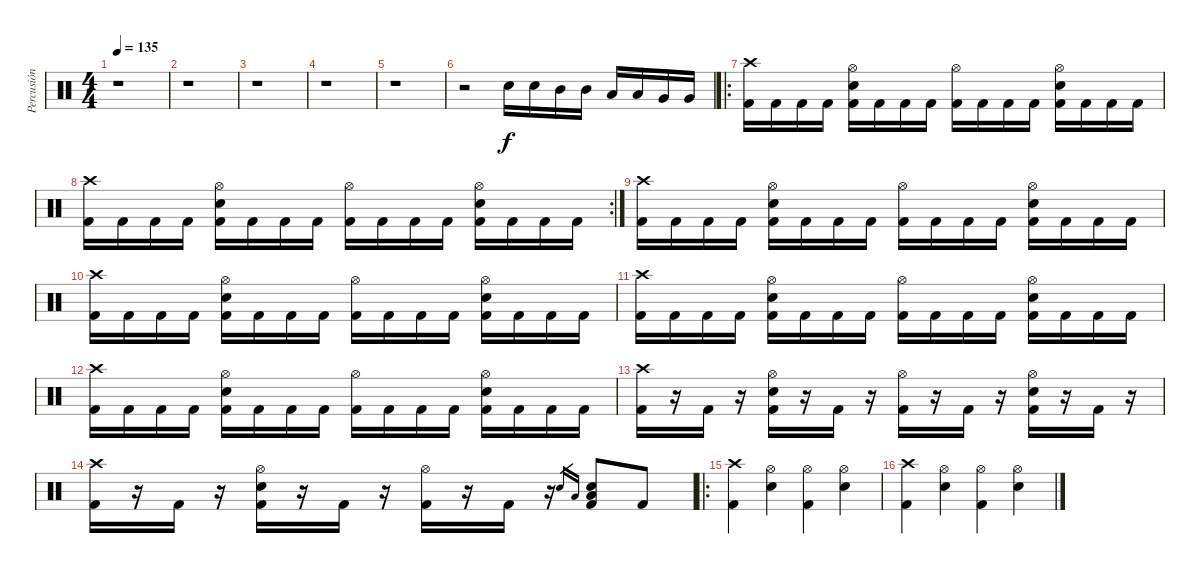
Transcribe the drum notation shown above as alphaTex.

\track ("Percusión" "Percusión") {instrument percussion}
\staff {score}
\articulation defaults
\ts (4 4)
\tempo 135
\clef neutral
\ks c
r.1{dy f} |
r.1 |
r.1 |
r.1 |
r.1 |
r.2 "Snare (hit) 2".16 "Snare (hit) 2".16 "Mid Tom (hit)".16 "Mid Tom (hit)".16 "Low Tom (hit)".16 "Low Tom (hit)".16 "Very Low Tom (hit)".16 "Very Low Tom (hit)".16 |
\ro
("Crash high (hit)" "Kick (hit) 2").16 "Kick (hit) 2".16 "Kick (hit) 2".16 "Kick (hit) 2".16 ("Hi-Hat (open)" "Snare (hit) 2" "Kick (hit) 2").16 "Kick (hit) 2".16 "Kick (hit) 2".16 "Kick (hit) 2".16 ("Hi-Hat (open)" "Kick (hit) 2").16 "Kick (hit) 2".16 "Kick (hit) 2".16 "Kick (hit) 2".16 ("Hi-Hat (open)" "Snare (hit) 2" "Kick (hit) 2").16 "Kick (hit) 2".16 "Kick (hit) 2".16 "Kick (hit) 2".16 |
\rc 2
("Crash high (hit)" "Kick (hit) 2").16 "Kick (hit) 2".16 "Kick (hit) 2".16 "Kick (hit) 2".16 ("Hi-Hat (open)" "Snare (hit) 2" "Kick (hit) 2").16 "Kick (hit) 2".16 "Kick (hit) 2".16 "Kick (hit) 2".16 ("Hi-Hat (open)" "Kick (hit) 2").16 "Kick (hit) 2".16 "Kick (hit) 2".16 "Kick (hit) 2".16 ("Hi-Hat (open)" "Snare (hit) 2" "Kick (hit) 2").16 "Kick (hit) 2".16 "Kick (hit) 2".16 "Kick (hit) 2".16 |
("Crash high (hit)" "Kick (hit) 2").16 "Kick (hit) 2".16 "Kick (hit) 2".16 "Kick (hit) 2".16 ("Hi-Hat (open)" "Snare (hit) 2" "Kick (hit) 2").16 "Kick (hit) 2".16 "Kick (hit) 2".16 "Kick (hit) 2".16 ("Hi-Hat (open)" "Kick (hit) 2").16 "Kick (hit) 2".16 "Kick (hit) 2".16 "Kick (hit) 2".16 ("Hi-Hat (open)" "Snare (hit) 2" "Kick (hit) 2").16 "Kick (hit) 2".16 "Kick (hit) 2".16 "Kick (hit) 2".16 |
("Crash high (hit)" "Kick (hit) 2").16 "Kick (hit) 2".16 "Kick (hit) 2".16 "Kick (hit) 2".16 ("Hi-Hat (open)" "Snare (hit) 2" "Kick (hit) 2").16 "Kick (hit) 2".16 "Kick (hit) 2".16 "Kick (hit) 2".16 ("Hi-Hat (open)" "Kick (hit) 2").16 "Kick (hit) 2".16 "Kick (hit) 2".16 "Kick (hit) 2".16 ("Hi-Hat (open)" "Snare (hit) 2" "Kick (hit) 2").16 "Kick (hit) 2".16 "Kick (hit) 2".16 "Kick (hit) 2".16 |
("Crash high (hit)" "Kick (hit) 2").16 "Kick (hit) 2".16 "Kick (hit) 2".16 "Kick (hit) 2".16 ("Hi-Hat (open)" "Snare (hit) 2" "Kick (hit) 2").16 "Kick (hit) 2".16 "Kick (hit) 2".16 "Kick (hit) 2".16 ("Hi-Hat (open)" "Kick (hit) 2").16 "Kick (hit) 2".16 "Kick (hit) 2".16 "Kick (hit) 2".16 ("Hi-Hat (open)" "Snare (hit) 2" "Kick (hit) 2").16 "Kick (hit) 2".16 "Kick (hit) 2".16 "Kick (hit) 2".16 |
("Crash high (hit)" "Kick (hit) 2").16 "Kick (hit) 2".16 "Kick (hit) 2".16 "Kick (hit) 2".16 ("Hi-Hat (open)" "Snare (hit) 2" "Kick (hit) 2").16 "Kick (hit) 2".16 "Kick (hit) 2".16 "Kick (hit) 2".16 ("Hi-Hat (open)" "Kick (hit) 2").16 "Kick (hit) 2".16 "Kick (hit) 2".16 "Kick (hit) 2".16 ("Hi-Hat (open)" "Snare (hit) 2" "Kick (hit) 2").16 "Kick (hit) 2".16 "Kick (hit) 2".16 "Kick (hit) 2".16 |
("Crash high (hit)" "Kick (hit) 2").16 r.16 "Kick (hit) 2".16 r.16 ("Hi-Hat (open)" "Snare (hit) 2" "Kick (hit) 2").16 r.16 "Kick (hit) 2".16 r.16 ("Hi-Hat (open)" "Kick (hit) 2").16 r.16 "Kick (hit) 2".16 r.16 ("Hi-Hat (open)" "Snare (hit) 2" "Kick (hit) 2").16 r.16 "Kick (hit) 2".16 r.16 |
("Crash high (hit)" "Kick (hit) 2").16 r.16 "Kick (hit) 2".16 r.16 ("Hi-Hat (open)" "Snare (hit) 2" "Kick (hit) 2").16 r.16 "Kick (hit) 2".16 r.16 ("Hi-Hat (open)" "Kick (hit) 2").16 r.16 "Kick (hit) 2".16 r.16 "Snare (hit) 2".16{gr} "Low Tom (hit)".16{gr} ("Snare (hit) 2" "Low Tom (hit)" "Kick (hit) 2").8 "Kick (hit) 2".8 |
\ro
("Crash high (hit)" "Kick (hit) 2").4 ("Hi-Hat (open)" "Snare (hit) 2").4 ("Hi-Hat (open)" "Kick (hit) 2").4 ("Hi-Hat (open)" "Snare (hit) 2").4 |
("Crash high (hit)" "Kick (hit) 2").4 ("Hi-Hat (open)" "Snare (hit) 2").4 ("Hi-Hat (open)" "Kick (hit) 2").4 ("Hi-Hat (open)" "Snare (hit) 2").4
